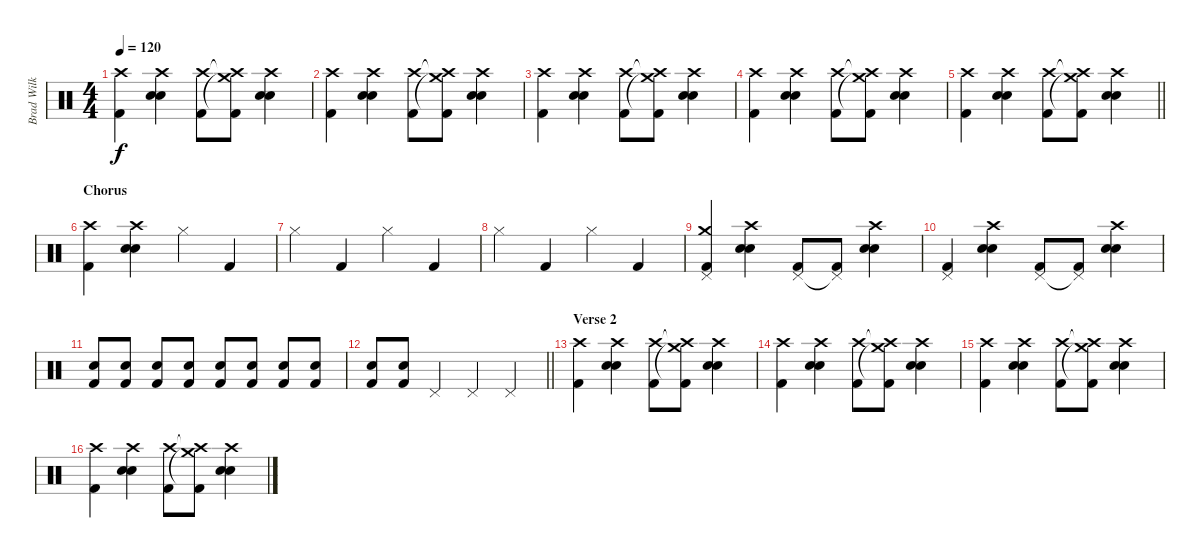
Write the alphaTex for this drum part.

\track ("Brad Wilk" "Brad Wilk") {instrument percussion}
\staff {score}
\articulation defaults
\ts (4 4)
\tempo 120
\clef neutral
\ks c
("Crash high (hit)" "Kick (hit) 2").4{dy f} ("Electric Snare (hit)" "Snare (hit) 2" "Crash high (hit)").4 ("Crash high (hit)" "Kick (hit) 2").8 ("Crash high (hit)"{t} "Crash medium (hit)"{t} "Kick (hit) 2").8 ("Electric Snare (hit)" "Snare (hit) 2" "Crash high (hit)").4 |
("Crash high (hit)" "Kick (hit) 2").4 ("Electric Snare (hit)" "Snare (hit) 2" "Crash high (hit)").4 ("Crash high (hit)" "Kick (hit) 2").8 ("Crash high (hit)"{t} "Crash medium (hit)"{t} "Kick (hit) 2").8 ("Electric Snare (hit)" "Snare (hit) 2" "Crash high (hit)").4 |
("Crash high (hit)" "Kick (hit) 2").4 ("Electric Snare (hit)" "Snare (hit) 2" "Crash high (hit)").4 ("Crash high (hit)" "Kick (hit) 2").8 ("Crash high (hit)"{t} "Crash medium (hit)"{t} "Kick (hit) 2").8 ("Electric Snare (hit)" "Snare (hit) 2" "Crash high (hit)").4 |
("Crash high (hit)" "Kick (hit) 2").4 ("Electric Snare (hit)" "Snare (hit) 2" "Crash high (hit)").4 ("Crash high (hit)" "Kick (hit) 2").8 ("Crash high (hit)"{t} "Crash medium (hit)"{t} "Kick (hit) 2").8 ("Electric Snare (hit)" "Snare (hit) 2" "Crash high (hit)").4 |
\barLineRight lightlight
("Crash high (hit)" "Kick (hit) 2").4 ("Electric Snare (hit)" "Snare (hit) 2" "Crash high (hit)").4 ("Crash high (hit)" "Kick (hit) 2").8 ("Crash high (hit)"{t} "Crash medium (hit)"{t} "Kick (hit) 2").8 ("Electric Snare (hit)" "Snare (hit) 2" "Crash high (hit)").4 |
\section ("" "Chorus")
("Crash high (hit)" "Kick (hit) 2").4 ("Electric Snare (hit)" "Snare (hit) 2" "Crash high (hit)").4 "Hi-Hat (closed)".4 "Kick (hit) 2".4 |
"Hi-Hat (closed)".4 "Kick (hit) 2".4 "Hi-Hat (closed)".4 "Kick (hit) 2".4 |
"Hi-Hat (closed)".4 "Kick (hit) 2".4 "Hi-Hat (closed)".4 "Kick (hit) 2".4 |
("Crash medium (hit)" "Pedal Hi-Hat (hit)" "Kick (hit) 2").4 ("Electric Snare (hit)" "Snare (hit) 2" "Crash high (hit)").4 ("Pedal Hi-Hat (hit)" "Kick (hit) 2").8 ("Pedal Hi-Hat (hit)"{t} "Kick (hit) 2").8 ("Electric Snare (hit)" "Snare (hit) 2" "Crash high (hit)").4 |
("Pedal Hi-Hat (hit)" "Kick (hit) 2").4 ("Electric Snare (hit)" "Snare (hit) 2" "Crash high (hit)").4 ("Pedal Hi-Hat (hit)" "Kick (hit) 2").8 ("Pedal Hi-Hat (hit)"{t} "Kick (hit) 2").8 ("Electric Snare (hit)" "Snare (hit) 2" "Crash high (hit)").4 |
("Electric Snare (hit)" "Kick (hit) 2").8 ("Electric Snare (hit)" "Kick (hit) 2").8 ("Electric Snare (hit)" "Kick (hit) 2").8 ("Electric Snare (hit)" "Kick (hit) 2").8 ("Electric Snare (hit)" "Kick (hit) 2").8 ("Electric Snare (hit)" "Kick (hit) 2").8 ("Electric Snare (hit)" "Kick (hit) 2").8 ("Electric Snare (hit)" "Kick (hit) 2").8 |
\barLineRight lightlight
("Electric Snare (hit)" "Kick (hit) 2").8 ("Electric Snare (hit)" "Kick (hit) 2").8 "Pedal Hi-Hat (hit)".4 "Pedal Hi-Hat (hit)".4 "Pedal Hi-Hat (hit)".4 |
\section ("" "Verse 2")
("Crash high (hit)" "Kick (hit) 2").4 ("Electric Snare (hit)" "Snare (hit) 2" "Crash high (hit)").4 ("Crash high (hit)" "Kick (hit) 2").8 ("Crash high (hit)"{t} "Crash medium (hit)"{t} "Kick (hit) 2").8 ("Electric Snare (hit)" "Snare (hit) 2" "Crash high (hit)").4 |
("Crash high (hit)" "Kick (hit) 2").4 ("Electric Snare (hit)" "Snare (hit) 2" "Crash high (hit)").4 ("Crash high (hit)" "Kick (hit) 2").8 ("Crash high (hit)"{t} "Crash medium (hit)"{t} "Kick (hit) 2").8 ("Electric Snare (hit)" "Snare (hit) 2" "Crash high (hit)").4 |
("Crash high (hit)" "Kick (hit) 2").4 ("Electric Snare (hit)" "Snare (hit) 2" "Crash high (hit)").4 ("Crash high (hit)" "Kick (hit) 2").8 ("Crash high (hit)"{t} "Crash medium (hit)"{t} "Kick (hit) 2").8 ("Electric Snare (hit)" "Snare (hit) 2" "Crash high (hit)").4 |
("Crash high (hit)" "Kick (hit) 2").4 ("Electric Snare (hit)" "Snare (hit) 2" "Crash high (hit)").4 ("Crash high (hit)" "Kick (hit) 2").8 ("Crash high (hit)"{t} "Crash medium (hit)"{t} "Kick (hit) 2").8 ("Electric Snare (hit)" "Snare (hit) 2" "Crash high (hit)").4
